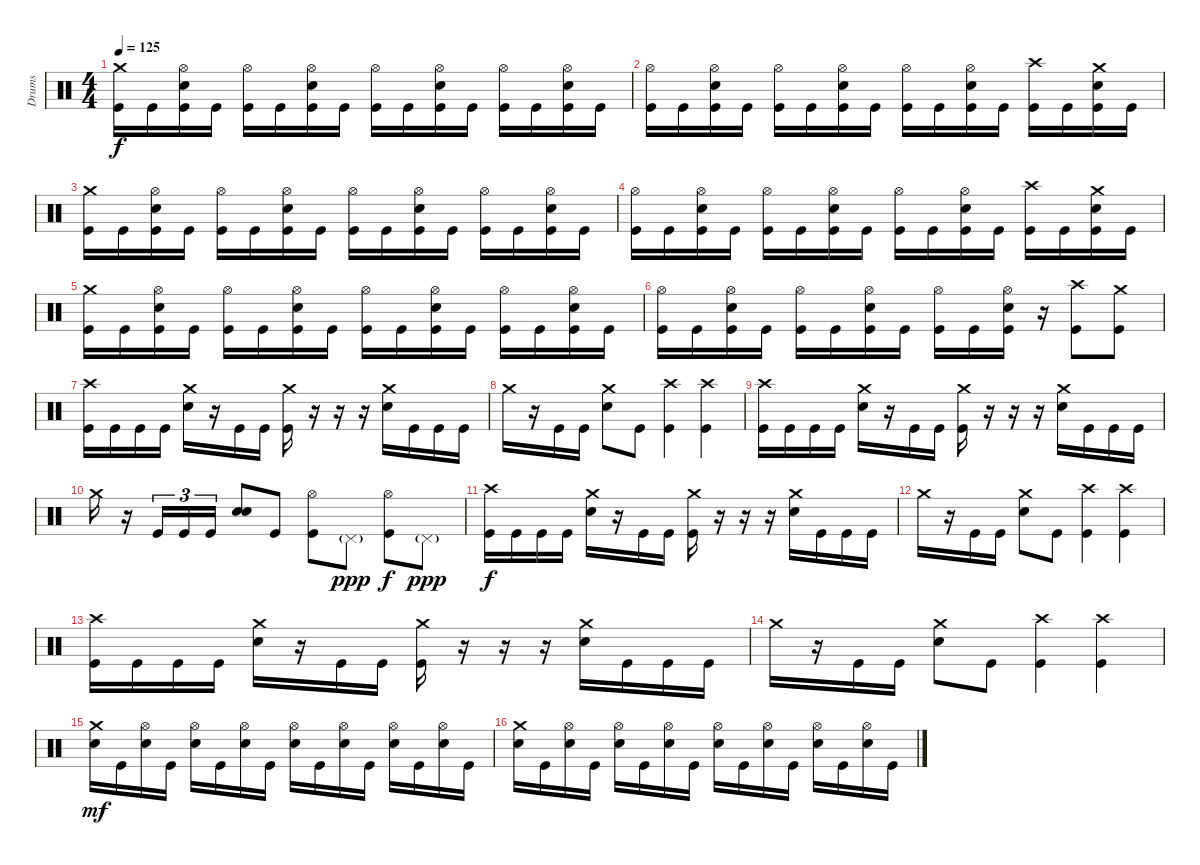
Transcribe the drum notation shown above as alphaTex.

\track ("Drums" "Drums") {instrument percussion}
\staff {score}
\articulation defaults
\ts (4 4)
\tempo 125
\clef neutral
\ks c
("Crash medium (hit)" "Kick (hit)").16{dy f} "Kick (hit)".16 ("Hi-Hat (open)" "Electric Snare (hit)" "Kick (hit)").16 "Kick (hit)".16 ("Hi-Hat (open)" "Kick (hit)").16 "Kick (hit)".16 ("Hi-Hat (open)" "Electric Snare (hit)" "Kick (hit)").16 "Kick (hit)".16 ("Hi-Hat (open)" "Kick (hit)").16 "Kick (hit)".16 ("Hi-Hat (open)" "Electric Snare (hit)" "Kick (hit)").16 "Kick (hit)".16 ("Hi-Hat (open)" "Kick (hit)").16 "Kick (hit)".16 ("Hi-Hat (open)" "Electric Snare (hit)" "Kick (hit)").16 "Kick (hit)".16 |
("Hi-Hat (open)" "Kick (hit)").16 "Kick (hit)".16 ("Hi-Hat (open)" "Electric Snare (hit)" "Kick (hit)").16 "Kick (hit)".16 ("Hi-Hat (open)" "Kick (hit)").16 "Kick (hit)".16 ("Hi-Hat (open)" "Electric Snare (hit)" "Kick (hit)").16 "Kick (hit)".16 ("Hi-Hat (open)" "Kick (hit)").16 "Kick (hit)".16 ("Hi-Hat (open)" "Electric Snare (hit)" "Kick (hit)").16 "Kick (hit)".16 ("Crash high (hit)" "Kick (hit)").16 "Kick (hit)".16 ("Crash medium (hit)" "Electric Snare (hit)" "Kick (hit)").16 "Kick (hit)".16 |
("Crash medium (hit)" "Kick (hit)").16 "Kick (hit)".16 ("Hi-Hat (open)" "Electric Snare (hit)" "Kick (hit)").16 "Kick (hit)".16 ("Hi-Hat (open)" "Kick (hit)").16 "Kick (hit)".16 ("Hi-Hat (open)" "Electric Snare (hit)" "Kick (hit)").16 "Kick (hit)".16 ("Hi-Hat (open)" "Kick (hit)").16 "Kick (hit)".16 ("Hi-Hat (open)" "Electric Snare (hit)" "Kick (hit)").16 "Kick (hit)".16 ("Hi-Hat (open)" "Kick (hit)").16 "Kick (hit)".16 ("Hi-Hat (open)" "Electric Snare (hit)" "Kick (hit)").16 "Kick (hit)".16 |
("Hi-Hat (open)" "Kick (hit)").16 "Kick (hit)".16 ("Hi-Hat (open)" "Electric Snare (hit)" "Kick (hit)").16 "Kick (hit)".16 ("Hi-Hat (open)" "Kick (hit)").16 "Kick (hit)".16 ("Hi-Hat (open)" "Electric Snare (hit)" "Kick (hit)").16 "Kick (hit)".16 ("Hi-Hat (open)" "Kick (hit)").16 "Kick (hit)".16 ("Hi-Hat (open)" "Electric Snare (hit)" "Kick (hit)").16 "Kick (hit)".16 ("Crash high (hit)" "Kick (hit)").16 "Kick (hit)".16 ("Crash medium (hit)" "Electric Snare (hit)" "Kick (hit)").16 "Kick (hit)".16 |
("Crash medium (hit)" "Kick (hit)").16 "Kick (hit)".16 ("Hi-Hat (open)" "Electric Snare (hit)" "Kick (hit)").16 "Kick (hit)".16 ("Hi-Hat (open)" "Kick (hit)").16 "Kick (hit)".16 ("Hi-Hat (open)" "Electric Snare (hit)" "Kick (hit)").16 "Kick (hit)".16 ("Hi-Hat (open)" "Kick (hit)").16 "Kick (hit)".16 ("Hi-Hat (open)" "Electric Snare (hit)" "Kick (hit)").16 "Kick (hit)".16 ("Hi-Hat (open)" "Kick (hit)").16 "Kick (hit)".16 ("Hi-Hat (open)" "Electric Snare (hit)" "Kick (hit)").16 "Kick (hit)".16 |
("Hi-Hat (open)" "Kick (hit)").16 "Kick (hit)".16 ("Hi-Hat (open)" "Electric Snare (hit)" "Kick (hit)").16 "Kick (hit)".16 ("Hi-Hat (open)" "Kick (hit)").16 "Kick (hit)".16 ("Hi-Hat (open)" "Electric Snare (hit)" "Kick (hit)").16 "Kick (hit)".16 ("Hi-Hat (open)" "Kick (hit)").16 "Kick (hit)".16 ("Hi-Hat (open)" "Electric Snare (hit)" "Kick (hit)").16 r.16 ("Crash high (hit)" "Kick (hit)").8 ("Crash medium (hit)" "Kick (hit)").8 |
("Crash high (hit)" "Kick (hit)").16 "Kick (hit)".16 "Kick (hit)".16 "Kick (hit)".16 ("Crash medium (hit)" "Electric Snare (hit)").16 r.16 "Kick (hit)".16 "Kick (hit)".16 ("Crash medium (hit)" "Kick (hit)").16 r.16 r.16 r.16 ("Crash medium (hit)" "Electric Snare (hit)").16 "Kick (hit)".16 "Kick (hit)".16 "Kick (hit)".16 |
"Crash medium (hit)".16 r.16 "Kick (hit)".16 "Kick (hit)".16 ("Crash medium (hit)" "Electric Snare (hit)").8 "Kick (hit)".8 ("Crash high (hit)" "Kick (hit)").4 ("Crash high (hit)" "Kick (hit)").4 |
("Crash high (hit)" "Kick (hit)").16 "Kick (hit)".16 "Kick (hit)".16 "Kick (hit)".16 ("Crash medium (hit)" "Electric Snare (hit)").16 r.16 "Kick (hit)".16 "Kick (hit)".16 ("Crash medium (hit)" "Kick (hit)").16 r.16 r.16 r.16 ("Crash medium (hit)" "Electric Snare (hit)").16 "Kick (hit)".16 "Kick (hit)".16 "Kick (hit)".16 |
"Crash medium (hit)".16 r.16 "Kick (hit)".16{tu (3 2)} "Kick (hit)".16{tu (3 2)} "Kick (hit)".16{tu (3 2)} ("Electric Snare (hit)" "Electric Snare (hit)").8 "Kick (hit)".8 ("Hi-Hat (open)" "Kick (hit)").8 "Pedal Hi-Hat (hit)"{g}.8{dy ppp} ("Hi-Hat (open)" "Kick (hit)").8{dy f} "Pedal Hi-Hat (hit)"{g}.8{dy ppp} |
("Crash high (hit)" "Kick (hit)").16{dy f} "Kick (hit)".16 "Kick (hit)".16 "Kick (hit)".16 ("Crash medium (hit)" "Electric Snare (hit)").16 r.16 "Kick (hit)".16 "Kick (hit)".16 ("Crash medium (hit)" "Kick (hit)").16 r.16 r.16 r.16 ("Crash medium (hit)" "Electric Snare (hit)").16 "Kick (hit)".16 "Kick (hit)".16 "Kick (hit)".16 |
"Crash medium (hit)".16 r.16 "Kick (hit)".16 "Kick (hit)".16 ("Crash medium (hit)" "Electric Snare (hit)").8 "Kick (hit)".8 ("Crash high (hit)" "Kick (hit)").4 ("Crash high (hit)" "Kick (hit)").4 |
("Crash high (hit)" "Kick (hit)").16 "Kick (hit)".16 "Kick (hit)".16 "Kick (hit)".16 ("Crash medium (hit)" "Electric Snare (hit)").16 r.16 "Kick (hit)".16 "Kick (hit)".16 ("Crash medium (hit)" "Kick (hit)").16 r.16 r.16 r.16 ("Crash medium (hit)" "Electric Snare (hit)").16 "Kick (hit)".16 "Kick (hit)".16 "Kick (hit)".16 |
"Crash medium (hit)".16 r.16 "Kick (hit)".16 "Kick (hit)".16 ("Crash medium (hit)" "Electric Snare (hit)").8 "Kick (hit)".8 ("Crash high (hit)" "Kick (hit)").4 ("Crash high (hit)" "Kick (hit)").4 |
("Crash medium (hit)" "Electric Snare (hit)").16{dy mf} "Kick (hit)".16 ("Hi-Hat (open)" "Electric Snare (hit)").16 "Kick (hit)".16 ("Hi-Hat (open)" "Electric Snare (hit)").16 "Kick (hit)".16 ("Hi-Hat (open)" "Electric Snare (hit)").16 "Kick (hit)".16 ("Hi-Hat (open)" "Electric Snare (hit)").16 "Kick (hit)".16 ("Hi-Hat (open)" "Electric Snare (hit)").16 "Kick (hit)".16 ("Hi-Hat (open)" "Electric Snare (hit)").16 "Kick (hit)".16 ("Hi-Hat (open)" "Electric Snare (hit)").16 "Kick (hit)".16 |
("Crash medium (hit)" "Electric Snare (hit)").16 "Kick (hit)".16 ("Hi-Hat (open)" "Electric Snare (hit)").16 "Kick (hit)".16 ("Hi-Hat (open)" "Electric Snare (hit)").16 "Kick (hit)".16 ("Hi-Hat (open)" "Electric Snare (hit)").16 "Kick (hit)".16 ("Hi-Hat (open)" "Electric Snare (hit)").16 "Kick (hit)".16 ("Hi-Hat (open)" "Electric Snare (hit)").16 "Kick (hit)".16 ("Hi-Hat (open)" "Electric Snare (hit)").16 "Kick (hit)".16 ("Hi-Hat (open)" "Electric Snare (hit)").16 "Kick (hit)".16
